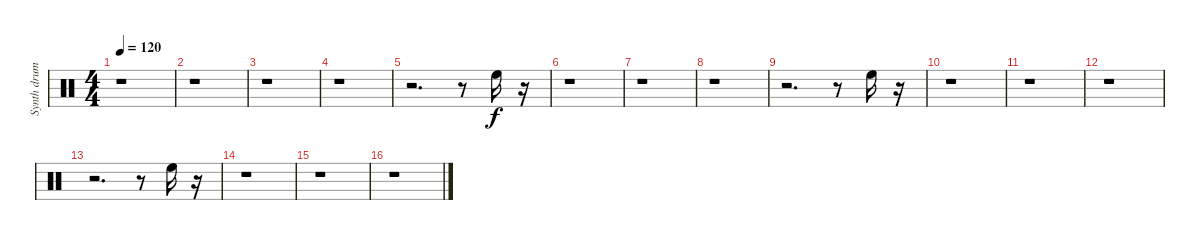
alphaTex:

\track ("Synth drum" "Synth drum") {instrument percussion}
\staff {score}
\articulation defaults
\ts (4 4)
\tempo 120
\clef neutral
\ks c
r.1{dy f} |
r.1 |
r.1 |
r.1 |
r.2{d} r.8 "High Floor Tom (hit)".16 r.16 |
r.1 |
r.1 |
r.1 |
r.2{d} r.8 "High Floor Tom (hit)".16 r.16 |
r.1 |
r.1 |
r.1 |
r.2{d} r.8 "High Floor Tom (hit)".16 r.16 |
r.1 |
r.1 |
r.1
